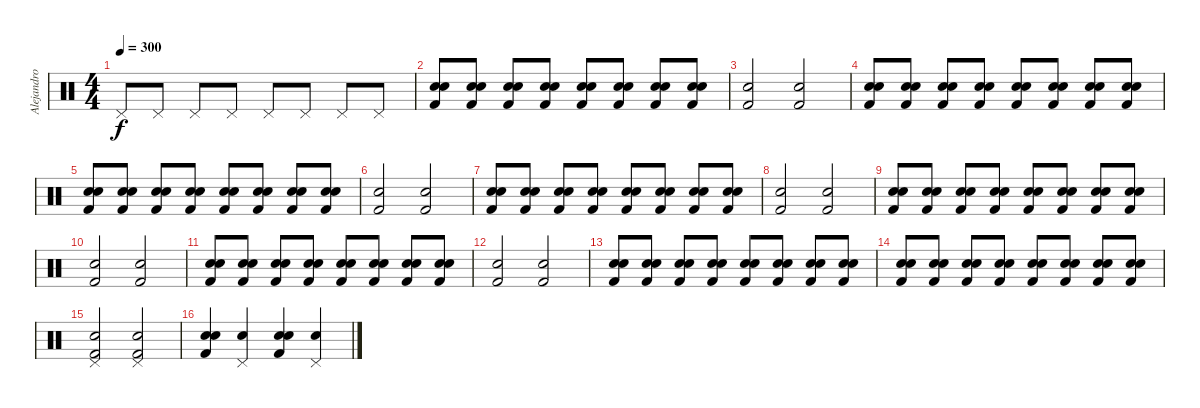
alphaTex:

\track ("Alejandro" "Alejandro") {instrument percussion}
\staff {score}
\articulation defaults
\ts (4 4)
\tempo 300
\clef neutral
\ks c "Pedal Hi-Hat (hit)".8{dy f} "Pedal Hi-Hat (hit)".8 "Pedal Hi-Hat (hit)".8 "Pedal Hi-Hat (hit)".8 "Pedal Hi-Hat (hit)".8 "Pedal Hi-Hat (hit)".8 "Pedal Hi-Hat (hit)".8 "Pedal Hi-Hat (hit)".8
|
("Snare (hit) 2" "Electric Snare (hit)" "Kick (hit) 2").8 ("Snare (hit) 2" "Electric Snare (hit)" "Kick (hit) 2").8 ("Snare (hit) 2" "Electric Snare (hit)" "Kick (hit) 2").8 ("Snare (hit) 2" "Electric Snare (hit)" "Kick (hit) 2").8 ("Snare (hit) 2" "Electric Snare (hit)" "Kick (hit) 2").8 ("Snare (hit) 2" "Electric Snare (hit)" "Kick (hit) 2").8 ("Snare (hit) 2" "Electric Snare (hit)" "Kick (hit) 2").8 ("Snare (hit) 2" "Electric Snare (hit)" "Kick (hit) 2").8 |
("Electric Snare (hit)" "Kick (hit) 2").2 ("Electric Snare (hit)" "Kick (hit) 2").2 |
("Snare (hit) 2" "Electric Snare (hit)" "Kick (hit) 2").8 ("Snare (hit) 2" "Electric Snare (hit)" "Kick (hit) 2").8 ("Snare (hit) 2" "Electric Snare (hit)" "Kick (hit) 2").8 ("Snare (hit) 2" "Electric Snare (hit)" "Kick (hit) 2").8 ("Snare (hit) 2" "Electric Snare (hit)" "Kick (hit) 2").8 ("Snare (hit) 2" "Electric Snare (hit)" "Kick (hit) 2").8 ("Snare (hit) 2" "Electric Snare (hit)" "Kick (hit) 2").8 ("Snare (hit) 2" "Electric Snare (hit)" "Kick (hit) 2").8 |
("Snare (hit) 2" "Electric Snare (hit)" "Kick (hit) 2").8 ("Snare (hit) 2" "Electric Snare (hit)" "Kick (hit) 2").8 ("Snare (hit) 2" "Electric Snare (hit)" "Kick (hit) 2").8 ("Snare (hit) 2" "Electric Snare (hit)" "Kick (hit) 2").8 ("Snare (hit) 2" "Electric Snare (hit)" "Kick (hit) 2").8 ("Snare (hit) 2" "Electric Snare (hit)" "Kick (hit) 2").8 ("Snare (hit) 2" "Electric Snare (hit)" "Kick (hit) 2").8 ("Snare (hit) 2" "Electric Snare (hit)" "Kick (hit) 2").8 |
("Electric Snare (hit)" "Kick (hit) 2").2 ("Electric Snare (hit)" "Kick (hit) 2").2 |
("Snare (hit) 2" "Electric Snare (hit)" "Kick (hit) 2").8 ("Snare (hit) 2" "Electric Snare (hit)" "Kick (hit) 2").8 ("Snare (hit) 2" "Electric Snare (hit)" "Kick (hit) 2").8 ("Snare (hit) 2" "Electric Snare (hit)" "Kick (hit) 2").8 ("Snare (hit) 2" "Electric Snare (hit)" "Kick (hit) 2").8 ("Snare (hit) 2" "Electric Snare (hit)" "Kick (hit) 2").8 ("Snare (hit) 2" "Electric Snare (hit)" "Kick (hit) 2").8 ("Snare (hit) 2" "Electric Snare (hit)" "Kick (hit) 2").8 |
("Electric Snare (hit)" "Kick (hit) 2").2 ("Electric Snare (hit)" "Kick (hit) 2").2 |
("Snare (hit) 2" "Electric Snare (hit)" "Kick (hit) 2").8 ("Snare (hit) 2" "Electric Snare (hit)" "Kick (hit) 2").8 ("Snare (hit) 2" "Electric Snare (hit)" "Kick (hit) 2").8 ("Snare (hit) 2" "Electric Snare (hit)" "Kick (hit) 2").8 ("Snare (hit) 2" "Electric Snare (hit)" "Kick (hit) 2").8 ("Snare (hit) 2" "Electric Snare (hit)" "Kick (hit) 2").8 ("Snare (hit) 2" "Electric Snare (hit)" "Kick (hit) 2").8 ("Snare (hit) 2" "Electric Snare (hit)" "Kick (hit) 2").8 |
("Electric Snare (hit)" "Kick (hit) 2").2 ("Electric Snare (hit)" "Kick (hit) 2").2 |
("Snare (hit) 2" "Electric Snare (hit)" "Kick (hit) 2").8 ("Snare (hit) 2" "Electric Snare (hit)" "Kick (hit) 2").8 ("Snare (hit) 2" "Electric Snare (hit)" "Kick (hit) 2").8 ("Snare (hit) 2" "Electric Snare (hit)" "Kick (hit) 2").8 ("Snare (hit) 2" "Electric Snare (hit)" "Kick (hit) 2").8 ("Snare (hit) 2" "Electric Snare (hit)" "Kick (hit) 2").8 ("Snare (hit) 2" "Electric Snare (hit)" "Kick (hit) 2").8 ("Snare (hit) 2" "Electric Snare (hit)" "Kick (hit) 2").8 |
("Electric Snare (hit)" "Kick (hit) 2").2 ("Electric Snare (hit)" "Kick (hit) 2").2 |
("Snare (hit) 2" "Electric Snare (hit)" "Kick (hit) 2").8 ("Snare (hit) 2" "Electric Snare (hit)" "Kick (hit) 2").8 ("Snare (hit) 2" "Electric Snare (hit)" "Kick (hit) 2").8 ("Snare (hit) 2" "Electric Snare (hit)" "Kick (hit) 2").8 ("Snare (hit) 2" "Electric Snare (hit)" "Kick (hit) 2").8 ("Snare (hit) 2" "Electric Snare (hit)" "Kick (hit) 2").8 ("Snare (hit) 2" "Electric Snare (hit)" "Kick (hit) 2").8 ("Snare (hit) 2" "Electric Snare (hit)" "Kick (hit) 2").8 |
("Snare (hit) 2" "Electric Snare (hit)" "Kick (hit) 2").8 ("Snare (hit) 2" "Electric Snare (hit)" "Kick (hit) 2").8 ("Snare (hit) 2" "Electric Snare (hit)" "Kick (hit) 2").8 ("Snare (hit) 2" "Electric Snare (hit)" "Kick (hit) 2").8 ("Snare (hit) 2" "Electric Snare (hit)" "Kick (hit) 2").8 ("Snare (hit) 2" "Electric Snare (hit)" "Kick (hit) 2").8 ("Snare (hit) 2" "Electric Snare (hit)" "Kick (hit) 2").8 ("Snare (hit) 2" "Electric Snare (hit)" "Kick (hit) 2").8 |
("Pedal Hi-Hat (hit)" "Electric Snare (hit)" "Kick (hit) 2").2 ("Pedal Hi-Hat (hit)" "Electric Snare (hit)" "Kick (hit) 2").2 |
("Snare (hit) 2" "Electric Snare (hit)" "Kick (hit) 2").4 ("Pedal Hi-Hat (hit)" "Snare (hit) 2").4 ("Snare (hit) 2" "Electric Snare (hit)" "Kick (hit) 2").4 ("Pedal Hi-Hat (hit)" "Snare (hit) 2").4
